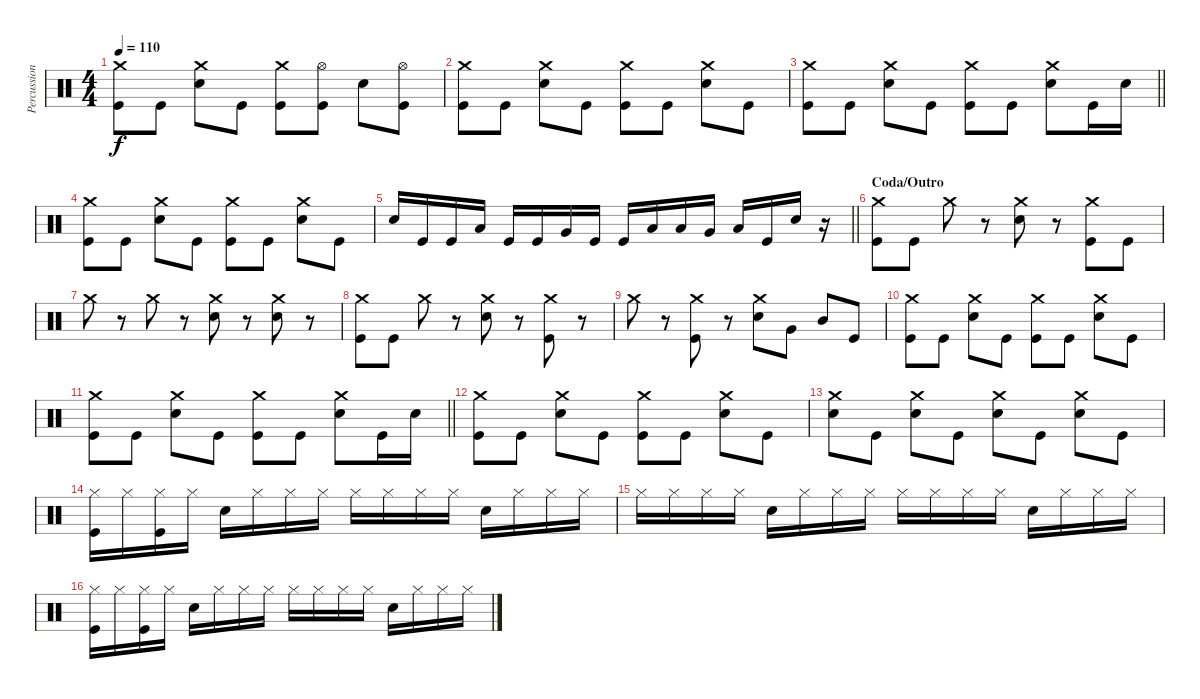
\track ("Percussion" "Percussion") {instrument percussion}
\staff {score}
\articulation defaults
\ts (4 4)
\tempo 110
\clef neutral
\ks c
("Crash medium (hit)" "Kick (hit)").8{dy f} "Kick (hit)".8 ("Crash medium (hit)" "Electric Snare (hit)").8 "Kick (hit)".8 ("Crash medium (hit)" "Kick (hit)").8 ("Hi-Hat (open)" "Kick (hit)").8 "Electric Snare (hit)".8 ("Hi-Hat (open)" "Kick (hit)").8 |
("Crash medium (hit)" "Kick (hit)").8 "Kick (hit)".8 ("Crash medium (hit)" "Electric Snare (hit)").8 "Kick (hit)".8 ("Crash medium (hit)" "Kick (hit)").8 "Kick (hit)".8 ("Crash medium (hit)" "Electric Snare (hit)").8 "Kick (hit)".8 |
\barLineRight lightlight
("Crash medium (hit)" "Kick (hit)").8 "Kick (hit)".8 ("Crash medium (hit)" "Electric Snare (hit)").8 "Kick (hit)".8 ("Crash medium (hit)" "Kick (hit)").8 "Kick (hit)".8 ("Crash medium (hit)" "Electric Snare (hit)").8 "Kick (hit)".16 "Electric Snare (hit)".16 |
("Crash medium (hit)" "Kick (hit)").8 "Kick (hit)".8 ("Crash medium (hit)" "Electric Snare (hit)").8 "Kick (hit)".8 ("Crash medium (hit)" "Kick (hit)").8 "Kick (hit)".8 ("Crash medium (hit)" "Electric Snare (hit)").8 "Kick (hit)".8 |
\barLineRight lightlight "Electric Snare (hit)".16 "Kick (hit)".16 "Kick (hit)".16 "Low Tom (hit)".16 "Kick (hit)".16 "Kick (hit)".16 "Very Low Tom (hit)".16 "Kick (hit)".16 "Kick (hit)".16 "Low Floor Tom (hit)".16 "Low Tom (hit)".16 "Very Low Tom (hit)".16 "Low Floor Tom (hit)".16 "Kick (hit)".16 "Electric Snare (hit)".16
r.16 |
\section ("" "Coda/Outro")
("Crash medium (hit)" "Kick (hit)").8 "Kick (hit)".8 "Crash medium (hit)".8 r.8 ("Crash medium (hit)" "Electric Snare (hit)").8 r.8 ("Crash medium (hit)" "Kick (hit)").8 "Kick (hit)".8 |
"Crash medium (hit)".8 r.8 "Crash medium (hit)".8 r.8 ("Crash medium (hit)" "Electric Snare (hit)").8 r.8 ("Crash medium (hit)" "Electric Snare (hit)").8 r.8 |
("Crash medium (hit)" "Kick (hit)").8 "Kick (hit)".8 "Crash medium (hit)".8 r.8 ("Crash medium (hit)" "Electric Snare (hit)").8 r.8 ("Crash medium (hit)" "Kick (hit)").8 r.8 |
"Crash medium (hit)".8 r.8 ("Crash medium (hit)" "Kick (hit)").8 r.8 ("Crash medium (hit)" "Electric Snare (hit)").8 "Very Low Tom (hit)".8 "Mid Tom (hit)".8 "Kick (hit)".8 |
("Crash medium (hit)" "Kick (hit)").8 "Kick (hit)".8 ("Crash medium (hit)" "Electric Snare (hit)").8 "Kick (hit)".8 ("Crash medium (hit)" "Kick (hit)").8 "Kick (hit)".8 ("Crash medium (hit)" "Electric Snare (hit)").8 "Kick (hit)".8 |
\barLineRight lightlight
("Crash medium (hit)" "Kick (hit)").8 "Kick (hit)".8 ("Crash medium (hit)" "Electric Snare (hit)").8 "Kick (hit)".8 ("Crash medium (hit)" "Kick (hit)").8 "Kick (hit)".8 ("Crash medium (hit)" "Electric Snare (hit)").8 "Kick (hit)".16 "Electric Snare (hit)".16 |
("Crash medium (hit)" "Kick (hit)").8 "Kick (hit)".8 ("Crash medium (hit)" "Electric Snare (hit)").8 "Kick (hit)".8 ("Crash medium (hit)" "Kick (hit)").8 "Kick (hit)".8 ("Crash medium (hit)" "Electric Snare (hit)").8 "Kick (hit)".8 |
("Crash medium (hit)" "Electric Snare (hit)").8 "Kick (hit)".8 ("Crash medium (hit)" "Electric Snare (hit)").8 "Kick (hit)".8 ("Crash medium (hit)" "Electric Snare (hit)").8 "Kick (hit)".8 ("Crash medium (hit)" "Electric Snare (hit)").8 "Kick (hit)".8 |
("Hi-Hat (closed)" "Kick (hit)").16 "Hi-Hat (closed)".16 ("Hi-Hat (closed)" "Kick (hit)").16 "Hi-Hat (closed)".16 "Electric Snare (hit)".16 "Hi-Hat (closed)".16 "Hi-Hat (closed)".16 "Hi-Hat (closed)".16 "Hi-Hat (closed)".16 "Hi-Hat (closed)".16 "Hi-Hat (closed)".16 "Hi-Hat (closed)".16 "Electric Snare (hit)".16 "Hi-Hat (closed)".16 "Hi-Hat (closed)".16 "Hi-Hat (closed)".16 |
"Hi-Hat (closed)".16 "Hi-Hat (closed)".16 "Hi-Hat (closed)".16 "Hi-Hat (closed)".16 "Electric Snare (hit)".16 "Hi-Hat (closed)".16 "Hi-Hat (closed)".16 "Hi-Hat (closed)".16 "Hi-Hat (closed)".16 "Hi-Hat (closed)".16 "Hi-Hat (closed)".16 "Hi-Hat (closed)".16 "Electric Snare (hit)".16 "Hi-Hat (closed)".16 "Hi-Hat (closed)".16 "Hi-Hat (closed)".16 |
("Hi-Hat (closed)" "Kick (hit)").16 "Hi-Hat (closed)".16 ("Hi-Hat (closed)" "Kick (hit)").16 "Hi-Hat (closed)".16 "Electric Snare (hit)".16 "Hi-Hat (closed)".16 "Hi-Hat (closed)".16 "Hi-Hat (closed)".16 "Hi-Hat (closed)".16 "Hi-Hat (closed)".16 "Hi-Hat (closed)".16 "Hi-Hat (closed)".16 "Electric Snare (hit)".16 "Hi-Hat (closed)".16 "Hi-Hat (closed)".16 "Hi-Hat (closed)".16
